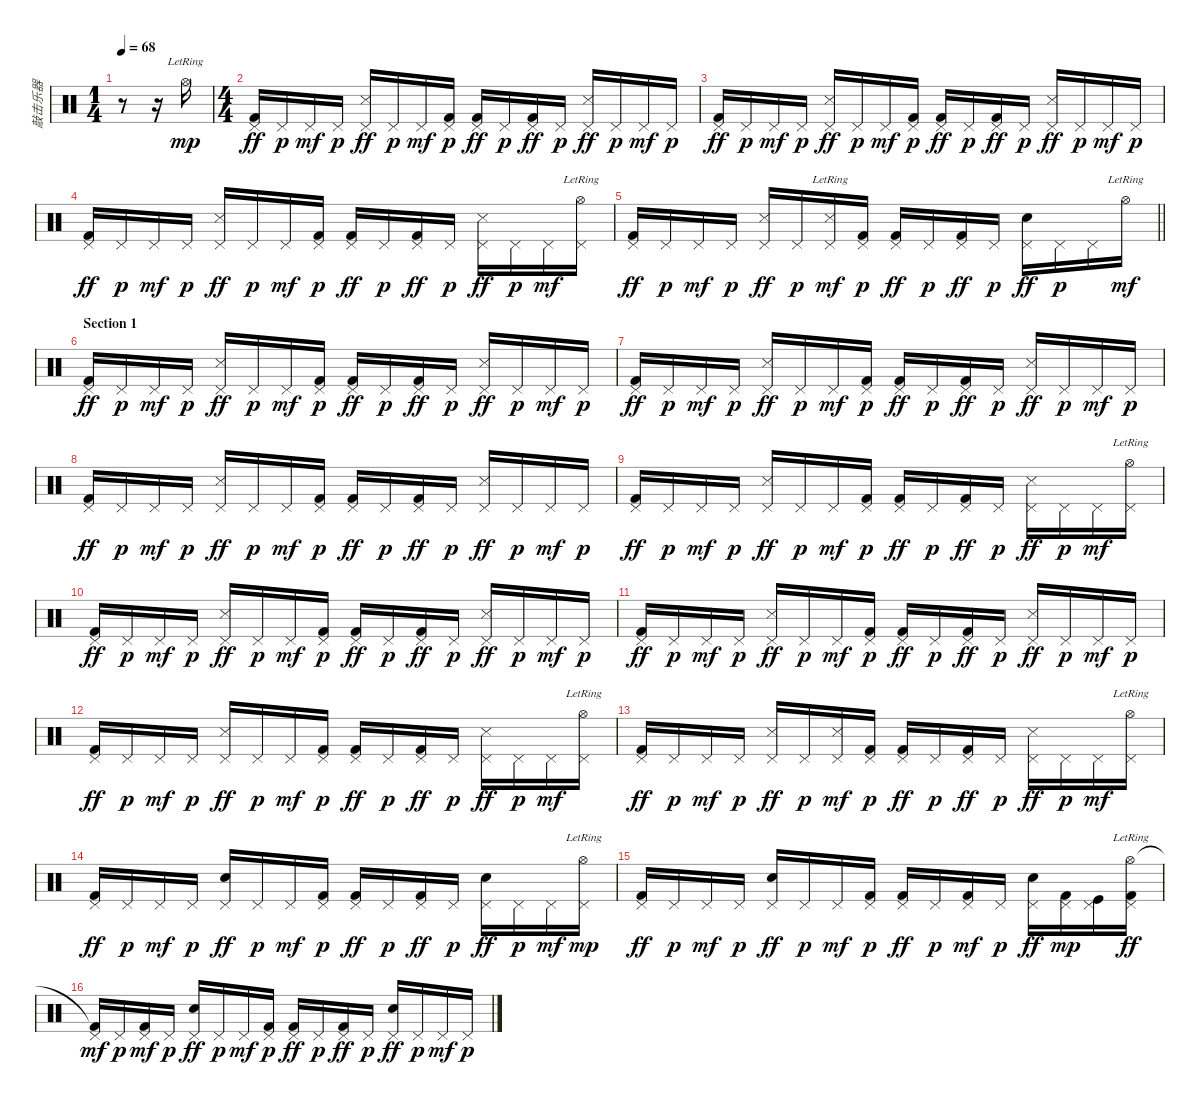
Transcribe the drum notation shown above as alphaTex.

\track ("敲击乐器" "敲击乐器") {instrument percussion}
\staff {score}
\articulation defaults
\ts (1 4)
\tempo 68
\clef neutral
\ks c
r.8{dy mp} r.16 "Hi-Hat (open)"{lr}.16 |
\ts (4 4)
("Pedal Hi-Hat (hit)" "Kick (hit) 2").16{dy ff} "Pedal Hi-Hat (hit)".16{dy p} "Pedal Hi-Hat (hit)".16{dy mf} "Pedal Hi-Hat (hit)".16{dy p} ("Pedal Hi-Hat (hit)" "Snare (side stick) 3").16{dy ff} "Pedal Hi-Hat (hit)".16{dy p} "Pedal Hi-Hat (hit)".16{dy mf} ("Pedal Hi-Hat (hit)" "Kick (hit) 2").16{dy p} ("Pedal Hi-Hat (hit)" "Kick (hit) 2").16{dy ff} "Pedal Hi-Hat (hit)".16{dy p} ("Pedal Hi-Hat (hit)" "Kick (hit) 2").16{dy ff} "Pedal Hi-Hat (hit)".16{dy p} ("Pedal Hi-Hat (hit)" "Snare (side stick) 3").16{dy ff} "Pedal Hi-Hat (hit)".16{dy p} "Pedal Hi-Hat (hit)".16{dy mf} "Pedal Hi-Hat (hit)".16{dy p} |
("Pedal Hi-Hat (hit)" "Kick (hit) 2").16{dy ff} "Pedal Hi-Hat (hit)".16{dy p} "Pedal Hi-Hat (hit)".16{dy mf} "Pedal Hi-Hat (hit)".16{dy p} ("Pedal Hi-Hat (hit)" "Snare (side stick) 3").16{dy ff} "Pedal Hi-Hat (hit)".16{dy p} "Pedal Hi-Hat (hit)".16{dy mf} ("Pedal Hi-Hat (hit)" "Kick (hit) 2").16{dy p} ("Pedal Hi-Hat (hit)" "Kick (hit) 2").16{dy ff} "Pedal Hi-Hat (hit)".16{dy p} ("Pedal Hi-Hat (hit)" "Kick (hit) 2").16{dy ff} "Pedal Hi-Hat (hit)".16{dy p} ("Pedal Hi-Hat (hit)" "Snare (side stick) 3").16{dy ff} "Pedal Hi-Hat (hit)".16{dy p} "Pedal Hi-Hat (hit)".16{dy mf} "Pedal Hi-Hat (hit)".16{dy p} |
("Pedal Hi-Hat (hit)" "Kick (hit) 2").16{dy ff} "Pedal Hi-Hat (hit)".16{dy p} "Pedal Hi-Hat (hit)".16{dy mf} "Pedal Hi-Hat (hit)".16{dy p} ("Pedal Hi-Hat (hit)" "Snare (side stick) 3").16{dy ff} "Pedal Hi-Hat (hit)".16{dy p} "Pedal Hi-Hat (hit)".16{dy mf} ("Pedal Hi-Hat (hit)" "Kick (hit) 2").16{dy p} ("Pedal Hi-Hat (hit)" "Kick (hit) 2").16{dy ff} "Pedal Hi-Hat (hit)".16{dy p} ("Pedal Hi-Hat (hit)" "Kick (hit) 2").16{dy ff} "Pedal Hi-Hat (hit)".16{dy p} ("Pedal Hi-Hat (hit)" "Snare (side stick) 3").16{dy ff} "Pedal Hi-Hat (hit)".16{dy p} "Pedal Hi-Hat (hit)".16{dy mf} ("Pedal Hi-Hat (hit)" "Hi-Hat (open)"{lr}).16 |
\barLineRight lightlight
("Pedal Hi-Hat (hit)" "Kick (hit) 2").16{dy ff} "Pedal Hi-Hat (hit)".16{dy p} "Pedal Hi-Hat (hit)".16{dy mf} "Pedal Hi-Hat (hit)".16{dy p} ("Pedal Hi-Hat (hit)" "Snare (side stick) 3").16{dy ff} "Pedal Hi-Hat (hit)".16{dy p} ("Pedal Hi-Hat (hit)" "Snare (side stick) 3"{lr}).16{dy mf} ("Pedal Hi-Hat (hit)" "Kick (hit) 2").16{dy p} ("Pedal Hi-Hat (hit)" "Kick (hit) 2").16{dy ff} "Pedal Hi-Hat (hit)".16{dy p} ("Pedal Hi-Hat (hit)" "Kick (hit) 2").16{dy ff} "Pedal Hi-Hat (hit)".16{dy p} ("Pedal Hi-Hat (hit)" "Electric Snare (hit)").16{dy ff} "Pedal Hi-Hat (hit)".16{dy p} "Pedal Hi-Hat (hit)".16 "Hi-Hat (open)"{lr}.16{dy mf} |
\section ("" "Section 1")
("Pedal Hi-Hat (hit)" "Kick (hit) 2").16{dy ff} "Pedal Hi-Hat (hit)".16{dy p} "Pedal Hi-Hat (hit)".16{dy mf} "Pedal Hi-Hat (hit)".16{dy p} ("Pedal Hi-Hat (hit)" "Snare (side stick) 3").16{dy ff} "Pedal Hi-Hat (hit)".16{dy p} "Pedal Hi-Hat (hit)".16{dy mf} ("Pedal Hi-Hat (hit)" "Kick (hit) 2").16{dy p} ("Pedal Hi-Hat (hit)" "Kick (hit) 2").16{dy ff} "Pedal Hi-Hat (hit)".16{dy p} ("Pedal Hi-Hat (hit)" "Kick (hit) 2").16{dy ff} "Pedal Hi-Hat (hit)".16{dy p} ("Pedal Hi-Hat (hit)" "Snare (side stick) 3").16{dy ff} "Pedal Hi-Hat (hit)".16{dy p} "Pedal Hi-Hat (hit)".16{dy mf} "Pedal Hi-Hat (hit)".16{dy p} |
("Pedal Hi-Hat (hit)" "Kick (hit) 2").16{dy ff} "Pedal Hi-Hat (hit)".16{dy p} "Pedal Hi-Hat (hit)".16{dy mf} "Pedal Hi-Hat (hit)".16{dy p} ("Pedal Hi-Hat (hit)" "Snare (side stick) 3").16{dy ff} "Pedal Hi-Hat (hit)".16{dy p} "Pedal Hi-Hat (hit)".16{dy mf} ("Pedal Hi-Hat (hit)" "Kick (hit) 2").16{dy p} ("Pedal Hi-Hat (hit)" "Kick (hit) 2").16{dy ff} "Pedal Hi-Hat (hit)".16{dy p} ("Pedal Hi-Hat (hit)" "Kick (hit) 2").16{dy ff} "Pedal Hi-Hat (hit)".16{dy p} ("Pedal Hi-Hat (hit)" "Snare (side stick) 3").16{dy ff} "Pedal Hi-Hat (hit)".16{dy p} "Pedal Hi-Hat (hit)".16{dy mf} "Pedal Hi-Hat (hit)".16{dy p} |
("Pedal Hi-Hat (hit)" "Kick (hit) 2").16{dy ff} "Pedal Hi-Hat (hit)".16{dy p} "Pedal Hi-Hat (hit)".16{dy mf} "Pedal Hi-Hat (hit)".16{dy p} ("Pedal Hi-Hat (hit)" "Snare (side stick) 3").16{dy ff} "Pedal Hi-Hat (hit)".16{dy p} "Pedal Hi-Hat (hit)".16{dy mf} ("Pedal Hi-Hat (hit)" "Kick (hit) 2").16{dy p} ("Pedal Hi-Hat (hit)" "Kick (hit) 2").16{dy ff} "Pedal Hi-Hat (hit)".16{dy p} ("Pedal Hi-Hat (hit)" "Kick (hit) 2").16{dy ff} "Pedal Hi-Hat (hit)".16{dy p} ("Pedal Hi-Hat (hit)" "Snare (side stick) 3").16{dy ff} "Pedal Hi-Hat (hit)".16{dy p} "Pedal Hi-Hat (hit)".16{dy mf} "Pedal Hi-Hat (hit)".16{dy p} |
("Pedal Hi-Hat (hit)" "Kick (hit) 2").16{dy ff} "Pedal Hi-Hat (hit)".16{dy p} "Pedal Hi-Hat (hit)".16{dy mf} "Pedal Hi-Hat (hit)".16{dy p} ("Pedal Hi-Hat (hit)" "Snare (side stick) 3").16{dy ff} "Pedal Hi-Hat (hit)".16{dy p} "Pedal Hi-Hat (hit)".16{dy mf} ("Pedal Hi-Hat (hit)" "Kick (hit) 2").16{dy p} ("Pedal Hi-Hat (hit)" "Kick (hit) 2").16{dy ff} "Pedal Hi-Hat (hit)".16{dy p} ("Pedal Hi-Hat (hit)" "Kick (hit) 2").16{dy ff} "Pedal Hi-Hat (hit)".16{dy p} ("Pedal Hi-Hat (hit)" "Snare (side stick) 3").16{dy ff} "Pedal Hi-Hat (hit)".16{dy p} "Pedal Hi-Hat (hit)".16{dy mf} ("Pedal Hi-Hat (hit)" "Hi-Hat (open)"{lr}).16 |
("Pedal Hi-Hat (hit)" "Kick (hit) 2").16{dy ff} "Pedal Hi-Hat (hit)".16{dy p} "Pedal Hi-Hat (hit)".16{dy mf} "Pedal Hi-Hat (hit)".16{dy p} ("Pedal Hi-Hat (hit)" "Snare (side stick) 3").16{dy ff} "Pedal Hi-Hat (hit)".16{dy p} "Pedal Hi-Hat (hit)".16{dy mf} ("Pedal Hi-Hat (hit)" "Kick (hit) 2").16{dy p} ("Pedal Hi-Hat (hit)" "Kick (hit) 2").16{dy ff} "Pedal Hi-Hat (hit)".16{dy p} ("Pedal Hi-Hat (hit)" "Kick (hit) 2").16{dy ff} "Pedal Hi-Hat (hit)".16{dy p} ("Pedal Hi-Hat (hit)" "Snare (side stick) 3").16{dy ff} "Pedal Hi-Hat (hit)".16{dy p} "Pedal Hi-Hat (hit)".16{dy mf} "Pedal Hi-Hat (hit)".16{dy p} |
("Pedal Hi-Hat (hit)" "Kick (hit) 2").16{dy ff} "Pedal Hi-Hat (hit)".16{dy p} "Pedal Hi-Hat (hit)".16{dy mf} "Pedal Hi-Hat (hit)".16{dy p} ("Pedal Hi-Hat (hit)" "Snare (side stick) 3").16{dy ff} "Pedal Hi-Hat (hit)".16{dy p} "Pedal Hi-Hat (hit)".16{dy mf} ("Pedal Hi-Hat (hit)" "Kick (hit) 2").16{dy p} ("Pedal Hi-Hat (hit)" "Kick (hit) 2").16{dy ff} "Pedal Hi-Hat (hit)".16{dy p} ("Pedal Hi-Hat (hit)" "Kick (hit) 2").16{dy ff} "Pedal Hi-Hat (hit)".16{dy p} ("Pedal Hi-Hat (hit)" "Snare (side stick) 3").16{dy ff} "Pedal Hi-Hat (hit)".16{dy p} "Pedal Hi-Hat (hit)".16{dy mf} "Pedal Hi-Hat (hit)".16{dy p} |
("Pedal Hi-Hat (hit)" "Kick (hit) 2").16{dy ff} "Pedal Hi-Hat (hit)".16{dy p} "Pedal Hi-Hat (hit)".16{dy mf} "Pedal Hi-Hat (hit)".16{dy p} ("Pedal Hi-Hat (hit)" "Snare (side stick) 3").16{dy ff} "Pedal Hi-Hat (hit)".16{dy p} "Pedal Hi-Hat (hit)".16{dy mf} ("Pedal Hi-Hat (hit)" "Kick (hit) 2").16{dy p} ("Pedal Hi-Hat (hit)" "Kick (hit) 2").16{dy ff} "Pedal Hi-Hat (hit)".16{dy p} ("Pedal Hi-Hat (hit)" "Kick (hit) 2").16{dy ff} "Pedal Hi-Hat (hit)".16{dy p} ("Pedal Hi-Hat (hit)" "Snare (side stick) 3").16{dy ff} "Pedal Hi-Hat (hit)".16{dy p} "Pedal Hi-Hat (hit)".16{dy mf} ("Pedal Hi-Hat (hit)" "Hi-Hat (open)"{lr}).16 |
("Pedal Hi-Hat (hit)" "Kick (hit) 2").16{dy ff} "Pedal Hi-Hat (hit)".16{dy p} "Pedal Hi-Hat (hit)".16{dy mf} "Pedal Hi-Hat (hit)".16{dy p} ("Pedal Hi-Hat (hit)" "Snare (side stick) 3").16{dy ff} "Pedal Hi-Hat (hit)".16{dy p} ("Pedal Hi-Hat (hit)" "Snare (side stick) 3").16{dy mf} ("Pedal Hi-Hat (hit)" "Kick (hit) 2").16{dy p} ("Pedal Hi-Hat (hit)" "Kick (hit) 2").16{dy ff} "Pedal Hi-Hat (hit)".16{dy p} ("Pedal Hi-Hat (hit)" "Kick (hit) 2").16{dy ff} "Pedal Hi-Hat (hit)".16{dy p} ("Pedal Hi-Hat (hit)" "Snare (side stick) 3").16{dy ff} "Pedal Hi-Hat (hit)".16{dy p} "Pedal Hi-Hat (hit)".16{dy mf} ("Pedal Hi-Hat (hit)" "Hi-Hat (open)"{lr}).16 |
("Pedal Hi-Hat (hit)" "Kick (hit) 2").16{dy ff} "Pedal Hi-Hat (hit)".16{dy p} "Pedal Hi-Hat (hit)".16{dy mf} "Pedal Hi-Hat (hit)".16{dy p} ("Pedal Hi-Hat (hit)" "Electric Snare (hit)").16{dy ff} "Pedal Hi-Hat (hit)".16{dy p} "Pedal Hi-Hat (hit)".16{dy mf} ("Pedal Hi-Hat (hit)" "Kick (hit) 2").16{dy p} ("Pedal Hi-Hat (hit)" "Kick (hit) 2").16{dy ff} "Pedal Hi-Hat (hit)".16{dy p} ("Pedal Hi-Hat (hit)" "Kick (hit) 2").16{dy ff} "Pedal Hi-Hat (hit)".16{dy p} ("Pedal Hi-Hat (hit)" "Electric Snare (hit)").16{dy ff} "Pedal Hi-Hat (hit)".16{dy p} "Pedal Hi-Hat (hit)".16{dy mf} ("Pedal Hi-Hat (hit)" "Hi-Hat (open)"{lr}).16{dy mp} |
("Pedal Hi-Hat (hit)" "Kick (hit) 2").16{dy ff} "Pedal Hi-Hat (hit)".16{dy p} "Pedal Hi-Hat (hit)".16{dy mf} "Pedal Hi-Hat (hit)".16{dy p} ("Pedal Hi-Hat (hit)" "Electric Snare (hit)").16{dy ff} "Pedal Hi-Hat (hit)".16{dy p} "Pedal Hi-Hat (hit)".16{dy mf} ("Pedal Hi-Hat (hit)" "Kick (hit) 2").16{dy p} ("Pedal Hi-Hat (hit)" "Kick (hit) 2").16{dy ff} "Pedal Hi-Hat (hit)".16{dy p} ("Pedal Hi-Hat (hit)" "Kick (hit) 2").16{dy mf} "Pedal Hi-Hat (hit)".16{dy p} ("Pedal Hi-Hat (hit)" "Electric Snare (hit)").16{dy ff} ("Pedal Hi-Hat (hit)" "Kick (hit) 2").16{dy mp} ("Pedal Hi-Hat (hit)" "Kick (hit)").16 ("Pedal Hi-Hat (hit)" "Hi-Hat (open)"{lr} "Kick (hit) 2").16{dy ff} |
("Pedal Hi-Hat (hit)" "Kick (hit) 2"{t}).16{dy mf} "Pedal Hi-Hat (hit)".16{dy p} ("Pedal Hi-Hat (hit)" "Kick (hit) 2").16{dy mf} "Pedal Hi-Hat (hit)".16{dy p} ("Pedal Hi-Hat (hit)" "Electric Snare (hit)").16{dy ff} "Pedal Hi-Hat (hit)".16{dy p} "Pedal Hi-Hat (hit)".16{dy mf} ("Pedal Hi-Hat (hit)" "Kick (hit) 2").16{dy p} ("Pedal Hi-Hat (hit)" "Kick (hit) 2").16{dy ff} "Pedal Hi-Hat (hit)".16{dy p} ("Pedal Hi-Hat (hit)" "Kick (hit) 2").16{dy ff} "Pedal Hi-Hat (hit)".16{dy p} ("Pedal Hi-Hat (hit)" "Electric Snare (hit)").16{dy ff} "Pedal Hi-Hat (hit)".16{dy p} "Pedal Hi-Hat (hit)".16{dy mf} "Pedal Hi-Hat (hit)".16{dy p}
